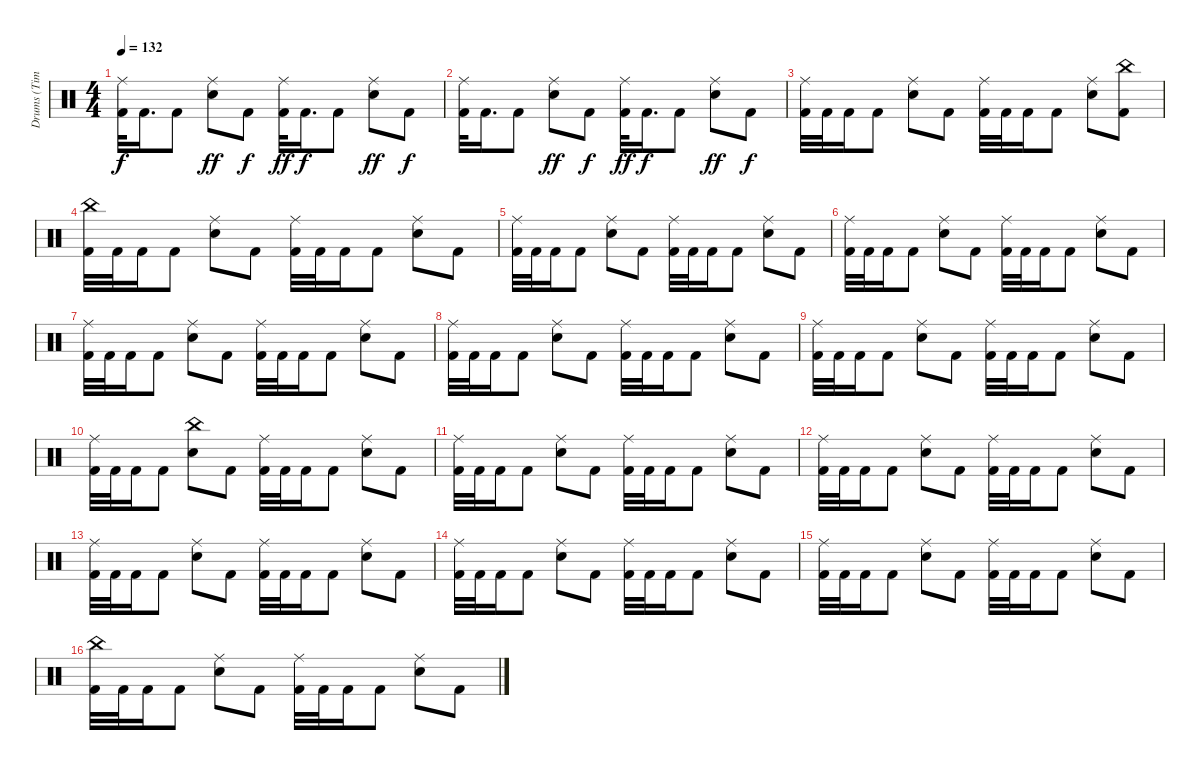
\track ("Drums (Tim Alexander)" "Drums (Tim") {instrument percussion}
\staff {score}
\articulation defaults
\ts (4 4)
\tempo 132
\clef neutral
\ks c
("Ride (middle)" "Kick (hit) 2").32{dy f} "Kick (hit) 2".16{d} "Kick (hit) 2".8 ("Ride (middle)" "Snare (hit) 2").8{dy ff} "Kick (hit) 2".8{dy f} ("Ride (middle)" "Kick (hit) 2").32{dy ff} "Kick (hit) 2".16{d dy f} "Kick (hit) 2".8 ("Ride (middle)" "Snare (hit) 2").8{dy ff} "Kick (hit) 2".8{dy f} |
("Ride (middle)" "Kick (hit) 2").32 "Kick (hit) 2".16{d} "Kick (hit) 2".8 ("Ride (middle)" "Snare (hit) 2").8{dy ff} "Kick (hit) 2".8{dy f} ("Ride (middle)" "Kick (hit) 2").32{dy ff} "Kick (hit) 2".16{d dy f} "Kick (hit) 2".8 ("Ride (middle)" "Snare (hit) 2").8{dy ff} "Kick (hit) 2".8{dy f} |
("Ride (middle)" "Kick (hit) 2").32 "Kick (hit) 2".32 "Kick (hit) 2".16 "Kick (hit) 2".8 ("Ride (middle)" "Snare (hit) 2").8 "Kick (hit) 2".8 ("Ride (middle)" "Kick (hit) 2").32 "Kick (hit) 2".32 "Kick (hit) 2".16 "Kick (hit) 2".8 ("Ride (middle)" "Snare (hit) 2").8 ("China (hit)" "Kick (hit) 2").8 |
("China (hit)" "Kick (hit) 2").32 "Kick (hit) 2".32 "Kick (hit) 2".16 "Kick (hit) 2".8 ("Ride (middle)" "Snare (hit) 2").8 "Kick (hit) 2".8 ("Ride (middle)" "Kick (hit) 2").32 "Kick (hit) 2".32 "Kick (hit) 2".16 "Kick (hit) 2".8 ("Ride (middle)" "Snare (hit) 2").8 "Kick (hit) 2".8 |
("Ride (middle)" "Kick (hit) 2").32 "Kick (hit) 2".32 "Kick (hit) 2".16 "Kick (hit) 2".8 ("Ride (middle)" "Snare (hit) 2").8 "Kick (hit) 2".8 ("Ride (middle)" "Kick (hit) 2").32 "Kick (hit) 2".32 "Kick (hit) 2".16 "Kick (hit) 2".8 ("Ride (middle)" "Snare (hit) 2").8 "Kick (hit) 2".8 |
("Ride (middle)" "Kick (hit) 2").32 "Kick (hit) 2".32 "Kick (hit) 2".16 "Kick (hit) 2".8 ("Ride (middle)" "Snare (hit) 2").8 "Kick (hit) 2".8 ("Ride (middle)" "Kick (hit) 2").32 "Kick (hit) 2".32 "Kick (hit) 2".16 "Kick (hit) 2".8 ("Ride (middle)" "Snare (hit) 2").8 "Kick (hit) 2".8 |
("Ride (middle)" "Kick (hit) 2").32 "Kick (hit) 2".32 "Kick (hit) 2".16 "Kick (hit) 2".8 ("Ride (middle)" "Snare (hit) 2").8 "Kick (hit) 2".8 ("Ride (middle)" "Kick (hit) 2").32 "Kick (hit) 2".32 "Kick (hit) 2".16 "Kick (hit) 2".8 ("Ride (middle)" "Snare (hit) 2").8 "Kick (hit) 2".8 |
("Ride (middle)" "Kick (hit) 2").32 "Kick (hit) 2".32 "Kick (hit) 2".16 "Kick (hit) 2".8 ("Ride (middle)" "Snare (hit) 2").8 "Kick (hit) 2".8 ("Ride (middle)" "Kick (hit) 2").32 "Kick (hit) 2".32 "Kick (hit) 2".16 "Kick (hit) 2".8 ("Ride (middle)" "Snare (hit) 2").8 "Kick (hit) 2".8 |
("Ride (middle)" "Kick (hit) 2").32 "Kick (hit) 2".32 "Kick (hit) 2".16 "Kick (hit) 2".8 ("Ride (middle)" "Snare (hit) 2").8 "Kick (hit) 2".8 ("Ride (middle)" "Kick (hit) 2").32 "Kick (hit) 2".32 "Kick (hit) 2".16 "Kick (hit) 2".8 ("Ride (middle)" "Snare (hit) 2").8 "Kick (hit) 2".8 |
("Ride (middle)" "Kick (hit) 2").32 "Kick (hit) 2".32 "Kick (hit) 2".16 "Kick (hit) 2".8 ("China (hit)" "Snare (hit) 2").8 "Kick (hit) 2".8 ("Ride (middle)" "Kick (hit) 2").32 "Kick (hit) 2".32 "Kick (hit) 2".16 "Kick (hit) 2".8 ("Ride (middle)" "Snare (hit) 2").8 "Kick (hit) 2".8 |
("Ride (middle)" "Kick (hit) 2").32 "Kick (hit) 2".32 "Kick (hit) 2".16 "Kick (hit) 2".8 ("Ride (middle)" "Snare (hit) 2").8 "Kick (hit) 2".8 ("Ride (middle)" "Kick (hit) 2").32 "Kick (hit) 2".32 "Kick (hit) 2".16 "Kick (hit) 2".8 ("Ride (middle)" "Snare (hit) 2").8 "Kick (hit) 2".8 |
("Ride (middle)" "Kick (hit) 2").32 "Kick (hit) 2".32 "Kick (hit) 2".16 "Kick (hit) 2".8 ("Ride (middle)" "Snare (hit) 2").8 "Kick (hit) 2".8 ("Ride (middle)" "Kick (hit) 2").32 "Kick (hit) 2".32 "Kick (hit) 2".16 "Kick (hit) 2".8 ("Ride (middle)" "Snare (hit) 2").8 "Kick (hit) 2".8 |
("Ride (middle)" "Kick (hit) 2").32 "Kick (hit) 2".32 "Kick (hit) 2".16 "Kick (hit) 2".8 ("Ride (middle)" "Snare (hit) 2").8 "Kick (hit) 2".8 ("Ride (middle)" "Kick (hit) 2").32 "Kick (hit) 2".32 "Kick (hit) 2".16 "Kick (hit) 2".8 ("Ride (middle)" "Snare (hit) 2").8 "Kick (hit) 2".8 |
("Ride (middle)" "Kick (hit) 2").32 "Kick (hit) 2".32 "Kick (hit) 2".16 "Kick (hit) 2".8 ("Ride (middle)" "Snare (hit) 2").8 "Kick (hit) 2".8 ("Ride (middle)" "Kick (hit) 2").32 "Kick (hit) 2".32 "Kick (hit) 2".16 "Kick (hit) 2".8 ("Ride (middle)" "Snare (hit) 2").8 "Kick (hit) 2".8 |
("Ride (middle)" "Kick (hit) 2").32 "Kick (hit) 2".32 "Kick (hit) 2".16 "Kick (hit) 2".8 ("Ride (middle)" "Snare (hit) 2").8 "Kick (hit) 2".8 ("Ride (middle)" "Kick (hit) 2").32 "Kick (hit) 2".32 "Kick (hit) 2".16 "Kick (hit) 2".8 ("Ride (middle)" "Snare (hit) 2").8 "Kick (hit) 2".8 |
("China (hit)" "Kick (hit) 2").32 "Kick (hit) 2".32 "Kick (hit) 2".16 "Kick (hit) 2".8 ("Ride (middle)" "Snare (hit) 2").8 "Kick (hit) 2".8 ("Ride (middle)" "Kick (hit) 2").32 "Kick (hit) 2".32 "Kick (hit) 2".16 "Kick (hit) 2".8 ("Ride (middle)" "Snare (hit) 2").8 "Kick (hit) 2".8
